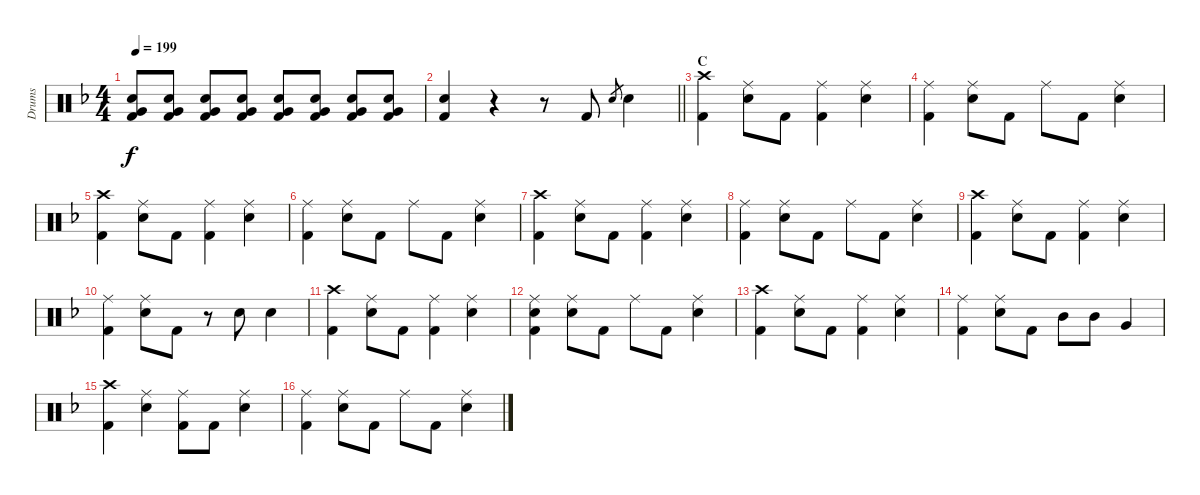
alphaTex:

\track ("Drums" "Drums") {instrument percussion}
\staff {score}
\articulation defaults
\ts (4 4)
\tempo 199
\clef neutral
\ks f
("Snare (hit) 2" "Very Low Tom (hit)" "Kick (hit) 2").8{dy f volume 0} ("Snare (hit) 2" "Very Low Tom (hit)" "Kick (hit) 2").8{volume 10} ("Snare (hit) 2" "Very Low Tom (hit)" "Kick (hit) 2").8 ("Snare (hit) 2" "Very Low Tom (hit)" "Kick (hit) 2").8 ("Snare (hit) 2" "Very Low Tom (hit)" "Kick (hit) 2").8 ("Snare (hit) 2" "Very Low Tom (hit)" "Kick (hit) 2").8 ("Snare (hit) 2" "Very Low Tom (hit)" "Kick (hit) 2").8 ("Snare (hit) 2" "Very Low Tom (hit)" "Kick (hit) 2").8 |
\barLineRight lightlight
("Snare (hit) 2" "Kick (hit) 2").4{volume 12} r.4 r.8 "Kick (hit) 2".8 "Snare (hit) 2".8{gr} "Snare (hit) 2".4 |
\section ("" "C")
("Crash high (hit)" "Kick (hit) 2").4 ("Ride (middle)" "Snare (hit) 2").8 "Kick (hit) 2".8 ("Ride (middle)" "Kick (hit) 2").4 ("Ride (middle)" "Snare (hit) 2").4 |
("Ride (middle)" "Kick (hit) 2").4 ("Ride (middle)" "Snare (hit) 2").8 "Kick (hit) 2".8 "Ride (middle)".8 "Kick (hit) 2".8 ("Ride (middle)" "Snare (hit) 2").4 |
("Crash high (hit)" "Kick (hit) 2").4 ("Ride (middle)" "Snare (hit) 2").8 "Kick (hit) 2".8 ("Ride (middle)" "Kick (hit) 2").4 ("Ride (middle)" "Snare (hit) 2").4 |
("Ride (middle)" "Kick (hit) 2").4 ("Ride (middle)" "Snare (hit) 2").8 "Kick (hit) 2".8 "Ride (middle)".8 "Kick (hit) 2".8 ("Ride (middle)" "Snare (hit) 2").4 |
("Crash high (hit)" "Kick (hit) 2").4 ("Ride (middle)" "Snare (hit) 2").8 "Kick (hit) 2".8 ("Ride (middle)" "Kick (hit) 2").4 ("Ride (middle)" "Snare (hit) 2").4 |
("Ride (middle)" "Kick (hit) 2").4 ("Ride (middle)" "Snare (hit) 2").8 "Kick (hit) 2".8 "Ride (middle)".8 "Kick (hit) 2".8 ("Ride (middle)" "Snare (hit) 2").4 |
("Crash high (hit)" "Kick (hit) 2").4 ("Ride (middle)" "Snare (hit) 2").8 "Kick (hit) 2".8 ("Ride (middle)" "Kick (hit) 2").4 ("Ride (middle)" "Snare (hit) 2").4 |
("Ride (middle)" "Kick (hit) 2").4 ("Ride (middle)" "Snare (hit) 2").8 "Kick (hit) 2".8 r.8 "Snare (hit) 2".8 "Snare (hit) 2".4 |
("Crash high (hit)" "Kick (hit) 2").4 ("Ride (middle)" "Snare (hit) 2").8 "Kick (hit) 2".8 ("Ride (middle)" "Kick (hit) 2").4 ("Ride (middle)" "Snare (hit) 2").4 |
("Ride (middle)" "Snare (hit) 2" "Kick (hit) 2").4 ("Ride (middle)" "Snare (hit) 2").8 "Kick (hit) 2".8 "Ride (middle)".8 "Kick (hit) 2".8 ("Ride (middle)" "Snare (hit) 2").4 |
("Crash high (hit)" "Kick (hit) 2").4 ("Ride (middle)" "Snare (hit) 2").8 "Kick (hit) 2".8 ("Ride (middle)" "Kick (hit) 2").4 ("Ride (middle)" "Snare (hit) 2").4 |
("Ride (middle)" "Kick (hit) 2").4 ("Ride (middle)" "Snare (hit) 2").8 "Kick (hit) 2".8 "Mid Tom (hit)".8 "Mid Tom (hit)".8 "Very Low Tom (hit)".4 |
("Crash high (hit)" "Kick (hit) 2").4 ("Ride (middle)" "Snare (hit) 2").4 ("Ride (middle)" "Kick (hit) 2").8 "Kick (hit) 2".8 ("Ride (middle)" "Snare (hit) 2").4 |
("Ride (middle)" "Kick (hit) 2").4 ("Ride (middle)" "Snare (hit) 2").8 "Kick (hit) 2".8 "Ride (middle)".8 "Kick (hit) 2".8 ("Ride (middle)" "Snare (hit) 2").4
